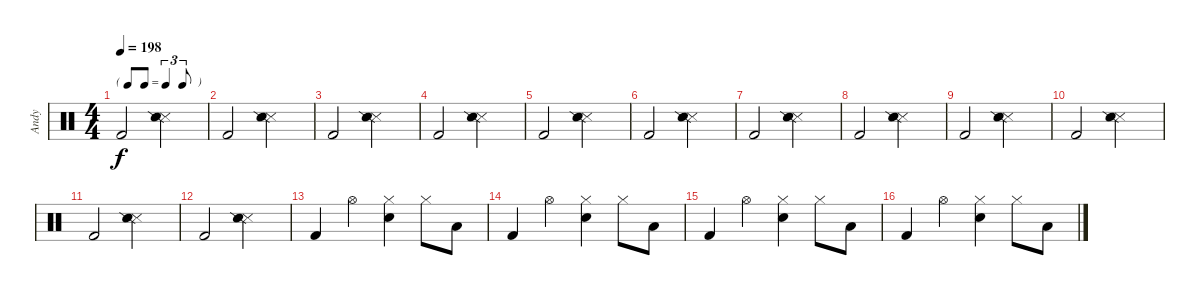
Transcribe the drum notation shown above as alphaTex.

\track ("Andy" "Andy") {instrument percussion}
\staff {score}
\articulation defaults
\ts (4 4)
\tf triplet8th
\tempo 198
\clef neutral
\ks c "Kick (hit) 2".2{dy f}
("Snare (side stick) 3" "Snare (side stick) 2").2 |
"Kick (hit) 2".2 ("Snare (side stick) 3" "Snare (side stick) 2").2 |
"Kick (hit) 2".2 ("Snare (side stick) 3" "Snare (side stick) 2").2 |
"Kick (hit) 2".2 ("Snare (side stick) 3" "Snare (side stick) 2").2 |
"Kick (hit) 2".2 ("Snare (side stick) 3" "Snare (side stick) 2").2 |
"Kick (hit) 2".2 ("Snare (side stick) 3" "Snare (side stick) 2").2 |
"Kick (hit) 2".2 ("Snare (side stick) 3" "Snare (side stick) 2").2 |
"Kick (hit) 2".2 ("Snare (side stick) 3" "Snare (side stick) 2").2 |
"Kick (hit) 2".2 ("Snare (side stick) 3" "Snare (side stick) 2").2 |
"Kick (hit) 2".2 ("Snare (side stick) 3" "Snare (side stick) 2").2 |
"Kick (hit) 2".2 ("Snare (side stick) 3" "Snare (side stick) 2").2 |
"Kick (hit) 2".2 ("Snare (side stick) 3" "Snare (side stick) 2").2 |
"Kick (hit) 2".4 "Hi-Hat (open)".4 ("Hi-Hat (closed)" "Electric Snare (hit)").4 "Hi-Hat (closed)".8 "Low Floor Tom (hit)".8 |
"Kick (hit) 2".4 "Hi-Hat (open)".4 ("Hi-Hat (closed)" "Electric Snare (hit)").4 "Hi-Hat (closed)".8 "Low Floor Tom (hit)".8 |
"Kick (hit) 2".4 "Hi-Hat (open)".4 ("Hi-Hat (closed)" "Electric Snare (hit)").4 "Hi-Hat (closed)".8 "Low Floor Tom (hit)".8 |
"Kick (hit) 2".4 "Hi-Hat (open)".4 ("Hi-Hat (closed)" "Electric Snare (hit)").4 "Hi-Hat (closed)".8 "Low Floor Tom (hit)".8
